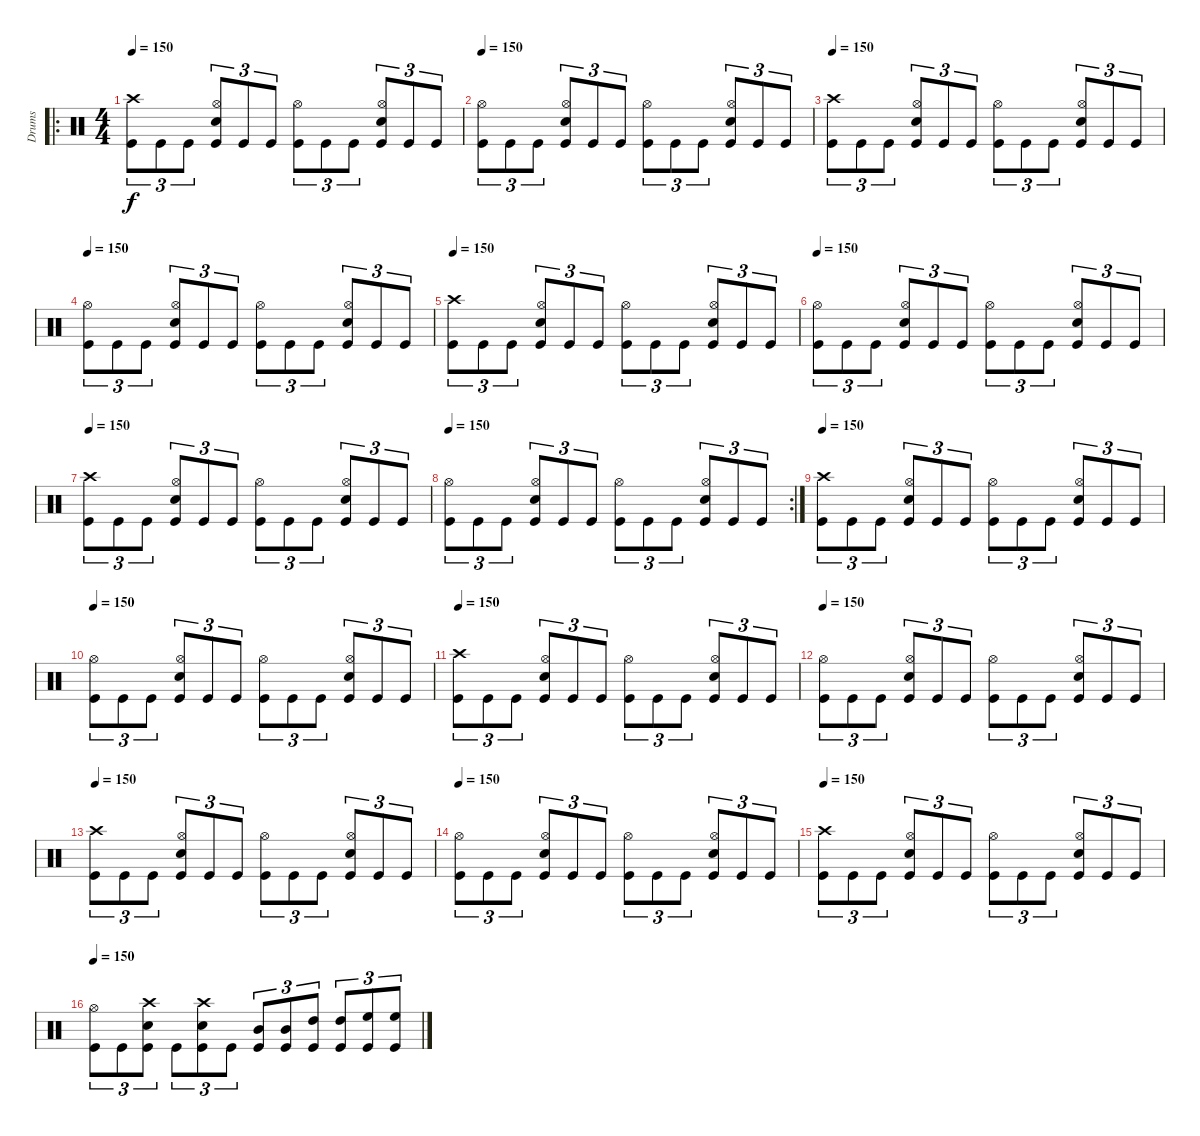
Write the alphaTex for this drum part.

\track ("Drums" "Drums") {instrument percussion}
\staff {score}
\articulation defaults
\ro
\ts (4 4)
\tempo 150
\clef neutral
\ks c
("Crash high (hit)" "Kick (hit)").8{tu (3 2) dy f} "Kick (hit)".8{tu (3 2)} "Kick (hit)".8{tu (3 2)} ("Hi-Hat (open)" "Electric Snare (hit)" "Kick (hit)").8{tu (3 2)} "Kick (hit)".8{tu (3 2)} "Kick (hit)".8{tu (3 2)} ("Hi-Hat (open)" "Kick (hit)").8{tu (3 2)} "Kick (hit)".8{tu (3 2)} "Kick (hit)".8{tu (3 2)} ("Hi-Hat (open)" "Electric Snare (hit)" "Kick (hit)").8{tu (3 2)} "Kick (hit)".8{tu (3 2)} "Kick (hit)".8{tu (3 2)} |
\tempo 150
("Hi-Hat (open)" "Kick (hit)").8{tu (3 2)} "Kick (hit)".8{tu (3 2)} "Kick (hit)".8{tu (3 2)} ("Hi-Hat (open)" "Electric Snare (hit)" "Kick (hit)").8{tu (3 2)} "Kick (hit)".8{tu (3 2)} "Kick (hit)".8{tu (3 2)} ("Hi-Hat (open)" "Kick (hit)").8{tu (3 2)} "Kick (hit)".8{tu (3 2)} "Kick (hit)".8{tu (3 2)} ("Hi-Hat (open)" "Electric Snare (hit)" "Kick (hit)").8{tu (3 2)} "Kick (hit)".8{tu (3 2)} "Kick (hit)".8{tu (3 2)} |
\tempo 150
("Crash high (hit)" "Kick (hit)").8{tu (3 2)} "Kick (hit)".8{tu (3 2)} "Kick (hit)".8{tu (3 2)} ("Hi-Hat (open)" "Electric Snare (hit)" "Kick (hit)").8{tu (3 2)} "Kick (hit)".8{tu (3 2)} "Kick (hit)".8{tu (3 2)} ("Hi-Hat (open)" "Kick (hit)").8{tu (3 2)} "Kick (hit)".8{tu (3 2)} "Kick (hit)".8{tu (3 2)} ("Hi-Hat (open)" "Electric Snare (hit)" "Kick (hit)").8{tu (3 2)} "Kick (hit)".8{tu (3 2)} "Kick (hit)".8{tu (3 2)} |
\tempo 150
("Hi-Hat (open)" "Kick (hit)").8{tu (3 2)} "Kick (hit)".8{tu (3 2)} "Kick (hit)".8{tu (3 2)} ("Hi-Hat (open)" "Electric Snare (hit)" "Kick (hit)").8{tu (3 2)} "Kick (hit)".8{tu (3 2)} "Kick (hit)".8{tu (3 2)} ("Hi-Hat (open)" "Kick (hit)").8{tu (3 2)} "Kick (hit)".8{tu (3 2)} "Kick (hit)".8{tu (3 2)} ("Hi-Hat (open)" "Electric Snare (hit)" "Kick (hit)").8{tu (3 2)} "Kick (hit)".8{tu (3 2)} "Kick (hit)".8{tu (3 2)} |
\tempo 150
("Crash high (hit)" "Kick (hit)").8{tu (3 2)} "Kick (hit)".8{tu (3 2)} "Kick (hit)".8{tu (3 2)} ("Hi-Hat (open)" "Electric Snare (hit)" "Kick (hit)").8{tu (3 2)} "Kick (hit)".8{tu (3 2)} "Kick (hit)".8{tu (3 2)} ("Hi-Hat (open)" "Kick (hit)").8{tu (3 2)} "Kick (hit)".8{tu (3 2)} "Kick (hit)".8{tu (3 2)} ("Hi-Hat (open)" "Electric Snare (hit)" "Kick (hit)").8{tu (3 2)} "Kick (hit)".8{tu (3 2)} "Kick (hit)".8{tu (3 2)} |
\tempo 150
("Hi-Hat (open)" "Kick (hit)").8{tu (3 2)} "Kick (hit)".8{tu (3 2)} "Kick (hit)".8{tu (3 2)} ("Hi-Hat (open)" "Electric Snare (hit)" "Kick (hit)").8{tu (3 2)} "Kick (hit)".8{tu (3 2)} "Kick (hit)".8{tu (3 2)} ("Hi-Hat (open)" "Kick (hit)").8{tu (3 2)} "Kick (hit)".8{tu (3 2)} "Kick (hit)".8{tu (3 2)} ("Hi-Hat (open)" "Electric Snare (hit)" "Kick (hit)").8{tu (3 2)} "Kick (hit)".8{tu (3 2)} "Kick (hit)".8{tu (3 2)} |
\tempo 150
("Crash high (hit)" "Kick (hit)").8{tu (3 2)} "Kick (hit)".8{tu (3 2)} "Kick (hit)".8{tu (3 2)} ("Hi-Hat (open)" "Electric Snare (hit)" "Kick (hit)").8{tu (3 2)} "Kick (hit)".8{tu (3 2)} "Kick (hit)".8{tu (3 2)} ("Hi-Hat (open)" "Kick (hit)").8{tu (3 2)} "Kick (hit)".8{tu (3 2)} "Kick (hit)".8{tu (3 2)} ("Hi-Hat (open)" "Electric Snare (hit)" "Kick (hit)").8{tu (3 2)} "Kick (hit)".8{tu (3 2)} "Kick (hit)".8{tu (3 2)} |
\rc 2
\tempo 150
("Hi-Hat (open)" "Kick (hit)").8{tu (3 2)} "Kick (hit)".8{tu (3 2)} "Kick (hit)".8{tu (3 2)} ("Hi-Hat (open)" "Electric Snare (hit)" "Kick (hit)").8{tu (3 2)} "Kick (hit)".8{tu (3 2)} "Kick (hit)".8{tu (3 2)} ("Hi-Hat (open)" "Kick (hit)").8{tu (3 2)} "Kick (hit)".8{tu (3 2)} "Kick (hit)".8{tu (3 2)} ("Hi-Hat (open)" "Electric Snare (hit)" "Kick (hit)").8{tu (3 2)} "Kick (hit)".8{tu (3 2)} "Kick (hit)".8{tu (3 2)} |
\tempo 150
("Crash high (hit)" "Kick (hit)").8{tu (3 2)} "Kick (hit)".8{tu (3 2)} "Kick (hit)".8{tu (3 2)} ("Hi-Hat (open)" "Electric Snare (hit)" "Kick (hit)").8{tu (3 2)} "Kick (hit)".8{tu (3 2)} "Kick (hit)".8{tu (3 2)} ("Hi-Hat (open)" "Kick (hit)").8{tu (3 2)} "Kick (hit)".8{tu (3 2)} "Kick (hit)".8{tu (3 2)} ("Hi-Hat (open)" "Electric Snare (hit)" "Kick (hit)").8{tu (3 2)} "Kick (hit)".8{tu (3 2)} "Kick (hit)".8{tu (3 2)} |
\tempo 150
("Hi-Hat (open)" "Kick (hit)").8{tu (3 2)} "Kick (hit)".8{tu (3 2)} "Kick (hit)".8{tu (3 2)} ("Hi-Hat (open)" "Electric Snare (hit)" "Kick (hit)").8{tu (3 2)} "Kick (hit)".8{tu (3 2)} "Kick (hit)".8{tu (3 2)} ("Hi-Hat (open)" "Kick (hit)").8{tu (3 2)} "Kick (hit)".8{tu (3 2)} "Kick (hit)".8{tu (3 2)} ("Hi-Hat (open)" "Electric Snare (hit)" "Kick (hit)").8{tu (3 2)} "Kick (hit)".8{tu (3 2)} "Kick (hit)".8{tu (3 2)} |
\tempo 150
("Crash high (hit)" "Kick (hit)").8{tu (3 2)} "Kick (hit)".8{tu (3 2)} "Kick (hit)".8{tu (3 2)} ("Hi-Hat (open)" "Electric Snare (hit)" "Kick (hit)").8{tu (3 2)} "Kick (hit)".8{tu (3 2)} "Kick (hit)".8{tu (3 2)} ("Hi-Hat (open)" "Kick (hit)").8{tu (3 2)} "Kick (hit)".8{tu (3 2)} "Kick (hit)".8{tu (3 2)} ("Hi-Hat (open)" "Electric Snare (hit)" "Kick (hit)").8{tu (3 2)} "Kick (hit)".8{tu (3 2)} "Kick (hit)".8{tu (3 2)} |
\tempo 150
("Hi-Hat (open)" "Kick (hit)").8{tu (3 2)} "Kick (hit)".8{tu (3 2)} "Kick (hit)".8{tu (3 2)} ("Hi-Hat (open)" "Electric Snare (hit)" "Kick (hit)").8{tu (3 2)} "Kick (hit)".8{tu (3 2)} "Kick (hit)".8{tu (3 2)} ("Hi-Hat (open)" "Kick (hit)").8{tu (3 2)} "Kick (hit)".8{tu (3 2)} "Kick (hit)".8{tu (3 2)} ("Hi-Hat (open)" "Electric Snare (hit)" "Kick (hit)").8{tu (3 2)} "Kick (hit)".8{tu (3 2)} "Kick (hit)".8{tu (3 2)} |
\tempo 150
("Crash high (hit)" "Kick (hit)").8{tu (3 2)} "Kick (hit)".8{tu (3 2)} "Kick (hit)".8{tu (3 2)} ("Hi-Hat (open)" "Electric Snare (hit)" "Kick (hit)").8{tu (3 2)} "Kick (hit)".8{tu (3 2)} "Kick (hit)".8{tu (3 2)} ("Hi-Hat (open)" "Kick (hit)").8{tu (3 2)} "Kick (hit)".8{tu (3 2)} "Kick (hit)".8{tu (3 2)} ("Hi-Hat (open)" "Electric Snare (hit)" "Kick (hit)").8{tu (3 2)} "Kick (hit)".8{tu (3 2)} "Kick (hit)".8{tu (3 2)} |
\tempo 150
("Hi-Hat (open)" "Kick (hit)").8{tu (3 2)} "Kick (hit)".8{tu (3 2)} "Kick (hit)".8{tu (3 2)} ("Hi-Hat (open)" "Electric Snare (hit)" "Kick (hit)").8{tu (3 2)} "Kick (hit)".8{tu (3 2)} "Kick (hit)".8{tu (3 2)} ("Hi-Hat (open)" "Kick (hit)").8{tu (3 2)} "Kick (hit)".8{tu (3 2)} "Kick (hit)".8{tu (3 2)} ("Hi-Hat (open)" "Electric Snare (hit)" "Kick (hit)").8{tu (3 2)} "Kick (hit)".8{tu (3 2)} "Kick (hit)".8{tu (3 2)} |
\tempo 150
("Crash high (hit)" "Kick (hit)").8{tu (3 2)} "Kick (hit)".8{tu (3 2)} "Kick (hit)".8{tu (3 2)} ("Hi-Hat (open)" "Electric Snare (hit)" "Kick (hit)").8{tu (3 2)} "Kick (hit)".8{tu (3 2)} "Kick (hit)".8{tu (3 2)} ("Hi-Hat (open)" "Kick (hit)").8{tu (3 2)} "Kick (hit)".8{tu (3 2)} "Kick (hit)".8{tu (3 2)} ("Hi-Hat (open)" "Electric Snare (hit)" "Kick (hit)").8{tu (3 2)} "Kick (hit)".8{tu (3 2)} "Kick (hit)".8{tu (3 2)} |
\tempo 150
("Hi-Hat (open)" "Kick (hit)").8{tu (3 2)} "Kick (hit)".8{tu (3 2)} ("Crash high (hit)" "Electric Snare (hit)" "Kick (hit)").8{tu (3 2)} "Kick (hit)".8{tu (3 2)} ("Crash high (hit)" "Electric Snare (hit)" "Kick (hit)").8{tu (3 2)} "Kick (hit)".8{tu (3 2)} ("Mid Tom (hit)" "Kick (hit)").8{tu (3 2)} ("Mid Tom (hit)" "Kick (hit)").8{tu (3 2)} ("High Tom (hit)" "Kick (hit)").8{tu (3 2)} ("High Tom (hit)" "Kick (hit)").8{tu (3 2)} ("High Floor Tom (hit)" "Kick (hit)").8{tu (3 2)} ("High Floor Tom (hit)" "Kick (hit)").8{tu (3 2)}
